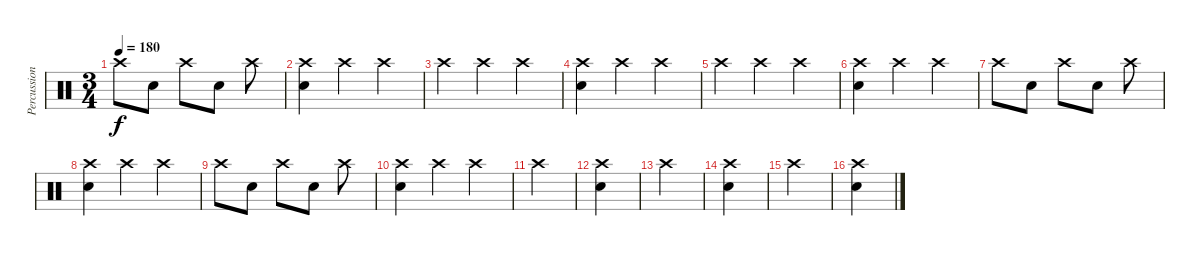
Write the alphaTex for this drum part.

\track ("Percussion" "Percussion") {instrument percussion}
\staff {score}
\articulation defaults
\ts (3 4)
\tempo 180
\clef neutral
\ks c "Crash high (hit)".8{dy f} "Snare (hit) 2".8 "Crash high (hit)".8 "Snare (hit) 2".8 "Crash high (hit)".8
|
("Crash high (hit)" "Snare (hit) 2").4 "Crash high (hit)".4 "Crash high (hit)".4 |
"Crash high (hit)".4 "Crash high (hit)".4 "Crash high (hit)".4 |
("Crash high (hit)" "Snare (hit) 2").4 "Crash high (hit)".4 "Crash high (hit)".4 |
"Crash high (hit)".4 "Crash high (hit)".4 "Crash high (hit)".4 |
("Crash high (hit)" "Snare (hit) 2").4 "Crash high (hit)".4 "Crash high (hit)".4 |
"Crash high (hit)".8 "Snare (hit) 2".8 "Crash high (hit)".8 "Snare (hit) 2".8 "Crash high (hit)".8 |
("Crash high (hit)" "Snare (hit) 2").4 "Crash high (hit)".4 "Crash high (hit)".4 |
"Crash high (hit)".8 "Snare (hit) 2".8 "Crash high (hit)".8 "Snare (hit) 2".8 "Crash high (hit)".8 |
("Crash high (hit)" "Snare (hit) 2").4 "Crash high (hit)".4 "Crash high (hit)".4 |
"Crash high (hit)".4 |
("Crash high (hit)" "Snare (hit) 2").4 |
"Crash high (hit)".4 |
("Crash high (hit)" "Snare (hit) 2").4 |
"Crash high (hit)".4 |
("Crash high (hit)" "Snare (hit) 2").4
